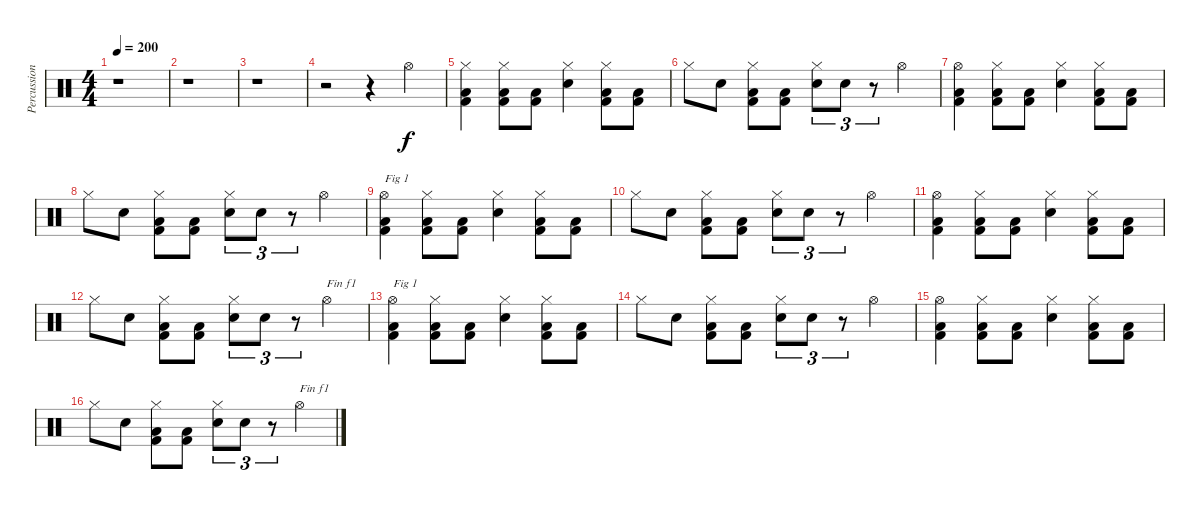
\track ("Percussions" "Percussion") {instrument percussion}
\staff {score}
\articulation defaults
\ts (4 4)
\tempo 200
\clef neutral
\ks c
r.1{dy f} |
r.1 |
r.1 |
r.2 r.4 "Hi-Hat (open)".4 |
("Kick (hit) 2" "Low Floor Tom (hit)" "Hi-Hat (closed)").4 ("Kick (hit) 2" "Low Floor Tom (hit)" "Hi-Hat (closed)").8 ("Kick (hit) 2" "Low Floor Tom (hit)").8 ("Snare (hit) 2" "Hi-Hat (closed)").4 ("Kick (hit) 2" "Low Floor Tom (hit)" "Hi-Hat (closed)").8 ("Kick (hit) 2" "Low Floor Tom (hit)").8 |
"Hi-Hat (closed)".8 "Snare (hit) 2".8 ("Kick (hit) 2" "Low Floor Tom (hit)" "Hi-Hat (closed)").8 ("Kick (hit) 2" "Low Floor Tom (hit)").8 ("Snare (hit) 2" "Hi-Hat (closed)").8{tu (3 2)} "Snare (hit) 2".8{tu (3 2)} r.8{tu (3 2)} "Hi-Hat (open)".4 |
("Kick (hit) 2" "Low Floor Tom (hit)" "Hi-Hat (open)").4 ("Kick (hit) 2" "Low Floor Tom (hit)" "Hi-Hat (closed)").8 ("Kick (hit) 2" "Low Floor Tom (hit)").8 ("Snare (hit) 2" "Hi-Hat (closed)").4 ("Kick (hit) 2" "Low Floor Tom (hit)" "Hi-Hat (closed)").8 ("Kick (hit) 2" "Low Floor Tom (hit)").8 |
"Hi-Hat (closed)".8 "Snare (hit) 2".8 ("Kick (hit) 2" "Low Floor Tom (hit)" "Hi-Hat (closed)").8 ("Kick (hit) 2" "Low Floor Tom (hit)").8 ("Snare (hit) 2" "Hi-Hat (closed)").8{tu (3 2)} "Snare (hit) 2".8{tu (3 2)} r.8{tu (3 2)} "Hi-Hat (open)".4 |
("Kick (hit) 2" "Low Floor Tom (hit)" "Hi-Hat (open)").4{txt "Fig 1"} ("Kick (hit) 2" "Low Floor Tom (hit)" "Hi-Hat (closed)").8 ("Kick (hit) 2" "Low Floor Tom (hit)").8 ("Snare (hit) 2" "Hi-Hat (closed)").4 ("Kick (hit) 2" "Low Floor Tom (hit)" "Hi-Hat (closed)").8 ("Kick (hit) 2" "Low Floor Tom (hit)").8 |
"Hi-Hat (closed)".8 "Snare (hit) 2".8 ("Kick (hit) 2" "Low Floor Tom (hit)" "Hi-Hat (closed)").8 ("Kick (hit) 2" "Low Floor Tom (hit)").8 ("Snare (hit) 2" "Hi-Hat (closed)").8{tu (3 2)} "Snare (hit) 2".8{tu (3 2)} r.8{tu (3 2)} "Hi-Hat (open)".4 |
("Kick (hit) 2" "Low Floor Tom (hit)" "Hi-Hat (open)").4 ("Kick (hit) 2" "Low Floor Tom (hit)" "Hi-Hat (closed)").8 ("Kick (hit) 2" "Low Floor Tom (hit)").8 ("Snare (hit) 2" "Hi-Hat (closed)").4 ("Kick (hit) 2" "Low Floor Tom (hit)" "Hi-Hat (closed)").8 ("Kick (hit) 2" "Low Floor Tom (hit)").8 |
"Hi-Hat (closed)".8 "Snare (hit) 2".8 ("Kick (hit) 2" "Low Floor Tom (hit)" "Hi-Hat (closed)").8 ("Kick (hit) 2" "Low Floor Tom (hit)").8 ("Snare (hit) 2" "Hi-Hat (closed)").8{tu (3 2)} "Snare (hit) 2".8{tu (3 2)} r.8{tu (3 2)} "Hi-Hat (open)".4{txt "Fin f1"} |
("Kick (hit) 2" "Low Floor Tom (hit)" "Hi-Hat (open)").4{txt "Fig 1"} ("Kick (hit) 2" "Low Floor Tom (hit)" "Hi-Hat (closed)").8 ("Kick (hit) 2" "Low Floor Tom (hit)").8 ("Snare (hit) 2" "Hi-Hat (closed)").4 ("Kick (hit) 2" "Low Floor Tom (hit)" "Hi-Hat (closed)").8 ("Kick (hit) 2" "Low Floor Tom (hit)").8 |
"Hi-Hat (closed)".8 "Snare (hit) 2".8 ("Kick (hit) 2" "Low Floor Tom (hit)" "Hi-Hat (closed)").8 ("Kick (hit) 2" "Low Floor Tom (hit)").8 ("Snare (hit) 2" "Hi-Hat (closed)").8{tu (3 2)} "Snare (hit) 2".8{tu (3 2)} r.8{tu (3 2)} "Hi-Hat (open)".4 |
("Kick (hit) 2" "Low Floor Tom (hit)" "Hi-Hat (open)").4 ("Kick (hit) 2" "Low Floor Tom (hit)" "Hi-Hat (closed)").8 ("Kick (hit) 2" "Low Floor Tom (hit)").8 ("Snare (hit) 2" "Hi-Hat (closed)").4 ("Kick (hit) 2" "Low Floor Tom (hit)" "Hi-Hat (closed)").8 ("Kick (hit) 2" "Low Floor Tom (hit)").8 |
"Hi-Hat (closed)".8 "Snare (hit) 2".8 ("Kick (hit) 2" "Low Floor Tom (hit)" "Hi-Hat (closed)").8 ("Kick (hit) 2" "Low Floor Tom (hit)").8 ("Snare (hit) 2" "Hi-Hat (closed)").8{tu (3 2)} "Snare (hit) 2".8{tu (3 2)} r.8{tu (3 2)} "Hi-Hat (open)".4{txt "Fin f1"}
